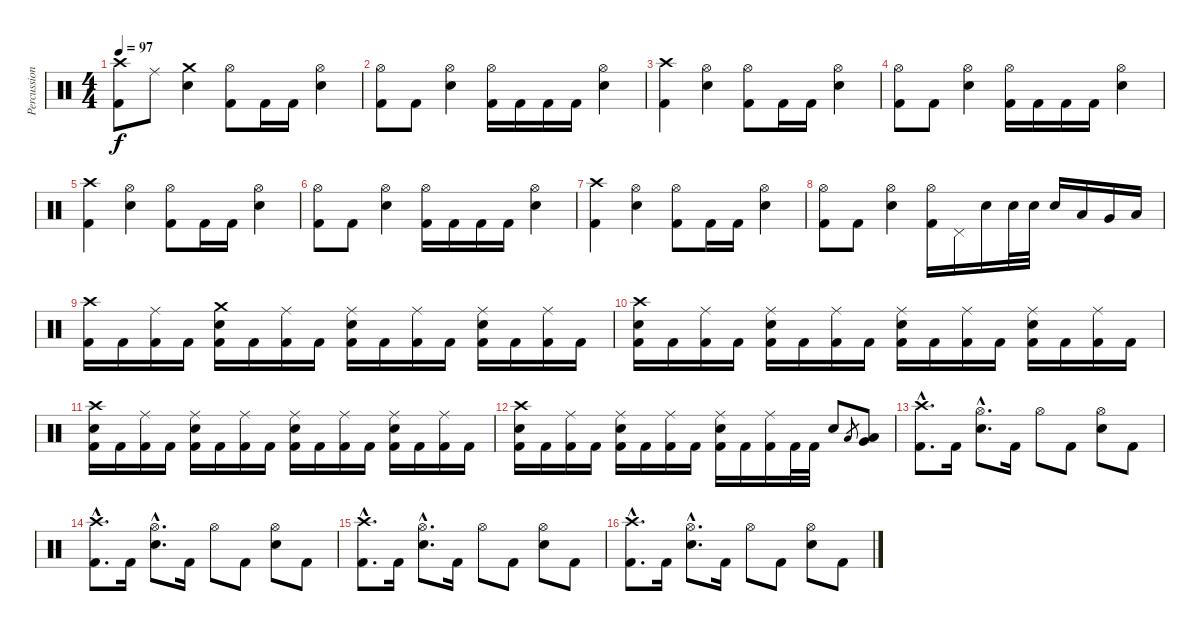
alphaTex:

\track ("Percussion" "Percussion") {instrument percussion}
\staff {score}
\articulation defaults
\ts (4 4)
\tempo 97
\clef neutral
\ks c
("Crash high (hit)" "Kick (hit) 2").8{dy f} "Ride (middle)".8 ("Crash medium (hit)" "Snare (hit) 2").4 ("Hi-Hat (open)" "Kick (hit) 2").8 "Kick (hit) 2".16 "Kick (hit) 2".16 ("Hi-Hat (open)" "Snare (hit) 2").4 |
("Hi-Hat (open)" "Kick (hit) 2").8 "Kick (hit) 2".8 ("Hi-Hat (open)" "Snare (hit) 2").4 ("Hi-Hat (open)" "Kick (hit) 2").16 "Kick (hit) 2".16 "Kick (hit) 2".16 "Kick (hit) 2".16 ("Hi-Hat (open)" "Snare (hit) 2").4 |
("Crash high (hit)" "Kick (hit) 2").4 ("Hi-Hat (open)" "Snare (hit) 2").4 ("Hi-Hat (open)" "Kick (hit) 2").8 "Kick (hit) 2".16 "Kick (hit) 2".16 ("Hi-Hat (open)" "Snare (hit) 2").4 |
("Hi-Hat (open)" "Kick (hit) 2").8 "Kick (hit) 2".8 ("Hi-Hat (open)" "Snare (hit) 2").4 ("Hi-Hat (open)" "Kick (hit) 2").16 "Kick (hit) 2".16 "Kick (hit) 2".16 "Kick (hit) 2".16 ("Hi-Hat (open)" "Snare (hit) 2").4 |
("Crash high (hit)" "Kick (hit) 2").4 ("Hi-Hat (open)" "Snare (hit) 2").4 ("Hi-Hat (open)" "Kick (hit) 2").8 "Kick (hit) 2".16 "Kick (hit) 2".16 ("Hi-Hat (open)" "Snare (hit) 2").4 |
("Hi-Hat (open)" "Kick (hit) 2").8 "Kick (hit) 2".8 ("Hi-Hat (open)" "Snare (hit) 2").4 ("Hi-Hat (open)" "Kick (hit) 2").16 "Kick (hit) 2".16 "Kick (hit) 2".16 "Kick (hit) 2".16 ("Hi-Hat (open)" "Snare (hit) 2").4 |
("Crash high (hit)" "Kick (hit) 2").4 ("Hi-Hat (open)" "Snare (hit) 2").4 ("Hi-Hat (open)" "Kick (hit) 2").8 "Kick (hit) 2".16 "Kick (hit) 2".16 ("Hi-Hat (open)" "Snare (hit) 2").4 |
("Hi-Hat (open)" "Kick (hit) 2").8 "Kick (hit) 2".8 ("Hi-Hat (open)" "Snare (hit) 2").4 ("Hi-Hat (open)" "Kick (hit) 2").16 "Pedal Hi-Hat (hit)".16 "Snare (hit) 2".16 "Snare (hit) 2".32 "Snare (hit) 2".32 "Snare (hit) 2".16 "Low Tom (hit)".16 "Very Low Tom (hit)".16 "Low Floor Tom (hit)".16 |
("Crash high (hit)" "Kick (hit) 2").16 "Kick (hit) 2".16 ("Ride (middle)" "Kick (hit) 2").16 "Kick (hit) 2".16 ("Snare (hit) 2" "Crash medium (hit)" "Kick (hit) 2").16 "Kick (hit) 2".16 ("Ride (middle)" "Kick (hit) 2").16 "Kick (hit) 2".16 ("Snare (hit) 2" "Ride (middle)" "Kick (hit) 2").16 "Kick (hit) 2".16 ("Ride (middle)" "Kick (hit) 2").16 "Kick (hit) 2".16 ("Ride (middle)" "Snare (hit) 2" "Kick (hit) 2").16 "Kick (hit) 2".16 ("Ride (middle)" "Kick (hit) 2").16 "Kick (hit) 2".16 |
("Snare (hit) 2" "Crash high (hit)" "Kick (hit) 2").16 "Kick (hit) 2".16 ("Ride (middle)" "Kick (hit) 2").16 "Kick (hit) 2".16 ("Snare (hit) 2" "Ride (middle)" "Kick (hit) 2").16 "Kick (hit) 2".16 ("Ride (middle)" "Kick (hit) 2").16 "Kick (hit) 2".16 ("Snare (hit) 2" "Ride (middle)" "Kick (hit) 2").16 "Kick (hit) 2".16 ("Ride (middle)" "Kick (hit) 2").16 "Kick (hit) 2".16 ("Ride (middle)" "Snare (hit) 2" "Kick (hit) 2").16 "Kick (hit) 2".16 ("Ride (middle)" "Kick (hit) 2").16 "Kick (hit) 2".16 |
("Snare (hit) 2" "Crash high (hit)" "Kick (hit) 2").16 "Kick (hit) 2".16 ("Ride (middle)" "Kick (hit) 2").16 "Kick (hit) 2".16 ("Snare (hit) 2" "Ride (middle)" "Kick (hit) 2").16 "Kick (hit) 2".16 ("Ride (middle)" "Kick (hit) 2").16 "Kick (hit) 2".16 ("Snare (hit) 2" "Ride (middle)" "Kick (hit) 2").16 "Kick (hit) 2".16 ("Ride (middle)" "Kick (hit) 2").16 "Kick (hit) 2".16 ("Ride (middle)" "Snare (hit) 2" "Kick (hit) 2").16 "Kick (hit) 2".16 ("Ride (middle)" "Kick (hit) 2").16 "Kick (hit) 2".16 |
("Snare (hit) 2" "Crash high (hit)" "Kick (hit) 2").16 "Kick (hit) 2".16 ("Ride (middle)" "Kick (hit) 2").16 "Kick (hit) 2".16 ("Snare (hit) 2" "Ride (middle)" "Kick (hit) 2").16 "Kick (hit) 2".16 ("Ride (middle)" "Kick (hit) 2").16 "Kick (hit) 2".16 ("Snare (hit) 2" "Ride (middle)" "Kick (hit) 2").16 "Kick (hit) 2".16 ("Ride (middle)" "Kick (hit) 2").16 "Kick (hit) 2".32 "Kick (hit) 2".32 "Snare (hit) 2".8 "Low Floor Tom (hit)".8{gr} ("Low Floor Tom (hit)" "Very Low Tom (hit)").8 |
("Crash high (hit)"{hac} "Kick (hit) 2"{hac}).8{d} "Kick (hit) 2".16 ("Hi-Hat (open)"{hac} "Snare (hit) 2"{hac}).8{d} "Kick (hit) 2".16 "Hi-Hat (open)".8 "Kick (hit) 2".8 ("Hi-Hat (open)" "Snare (hit) 2").8 "Kick (hit) 2".8 |
("Crash high (hit)"{hac} "Kick (hit) 2"{hac}).8{d} "Kick (hit) 2".16 ("Hi-Hat (open)"{hac} "Snare (hit) 2"{hac}).8{d} "Kick (hit) 2".16 "Hi-Hat (open)".8 "Kick (hit) 2".8 ("Hi-Hat (open)" "Snare (hit) 2").8 "Kick (hit) 2".8 |
("Crash high (hit)"{hac} "Kick (hit) 2"{hac}).8{d} "Kick (hit) 2".16 ("Hi-Hat (open)"{hac} "Snare (hit) 2"{hac}).8{d} "Kick (hit) 2".16 "Hi-Hat (open)".8 "Kick (hit) 2".8 ("Hi-Hat (open)" "Snare (hit) 2").8 "Kick (hit) 2".8 |
("Crash high (hit)"{hac} "Kick (hit) 2"{hac}).8{d} "Kick (hit) 2".16 ("Hi-Hat (open)"{hac} "Snare (hit) 2"{hac}).8{d} "Kick (hit) 2".16 "Hi-Hat (open)".8 "Kick (hit) 2".8 ("Hi-Hat (open)" "Snare (hit) 2").8 "Kick (hit) 2".8
